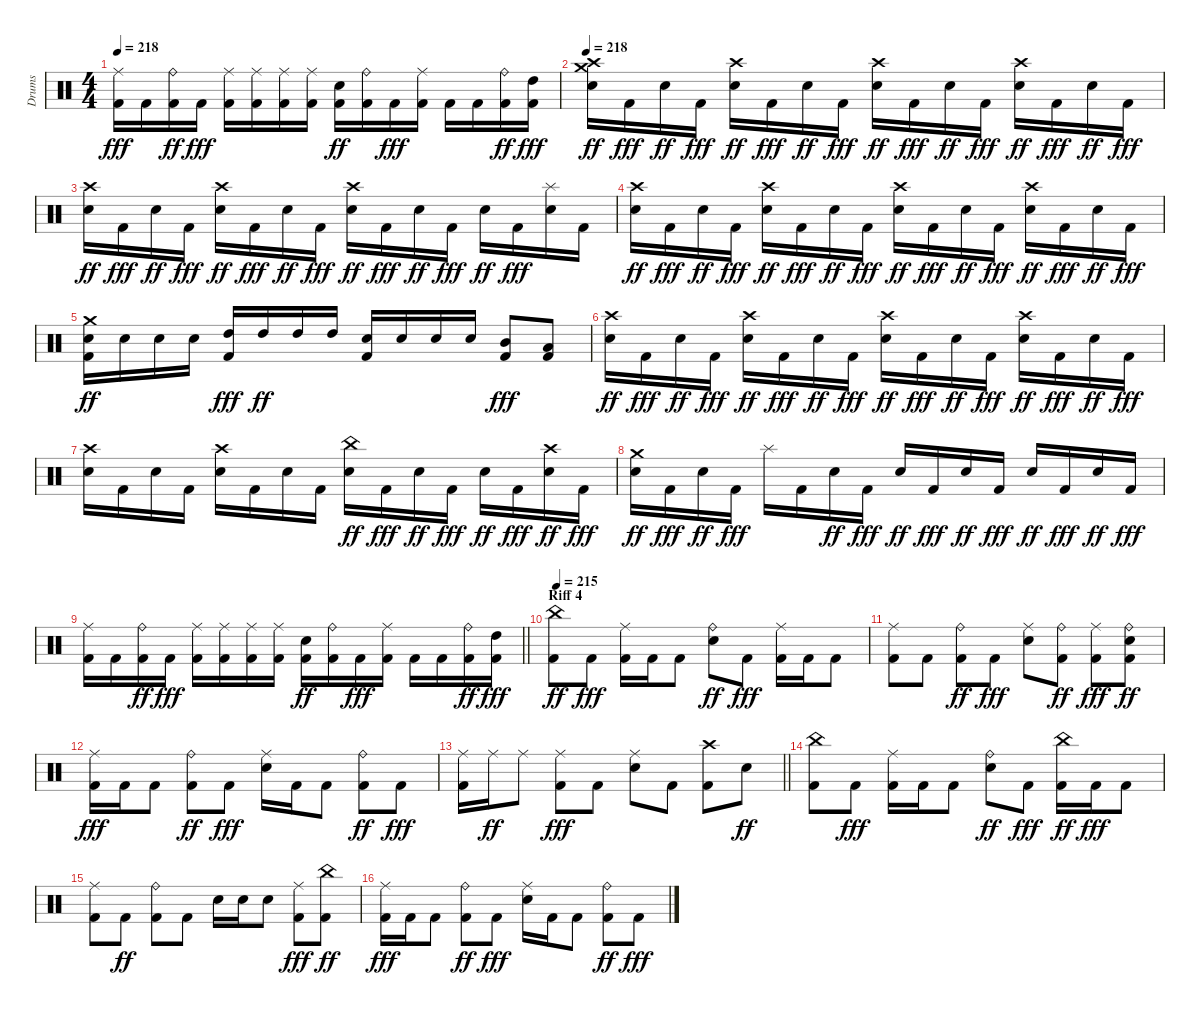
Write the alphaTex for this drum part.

\track ("Drums" "Drums") {instrument percussion}
\staff {score}
\articulation defaults
\ts (4 4)
\tempo 218
\clef neutral
\ks c
("Kick (hit) 2" "Ride (middle)").16{dy fff} "Kick (hit) 2".16 ("Kick (hit) 2" "Ride (bell)").16{dy ff} "Kick (hit) 2".16{dy fff} ("Kick (hit) 2" "Ride (middle)").16 ("Kick (hit) 2" "Ride (middle)").16 ("Kick (hit) 2" "Ride (middle)").16 ("Kick (hit) 2" "Ride (middle)").16 ("Kick (hit) 2" "Snare (hit) 2").16{dy ff} ("Kick (hit) 2" "Ride (bell)").16 "Kick (hit) 2".16{dy fff} ("Kick (hit) 2" "Ride (middle)").16 "Kick (hit) 2".16 "Kick (hit) 2".16 ("Kick (hit) 2" "Ride (bell)").16{dy ff} ("Kick (hit) 2" "High Tom (hit)").16{dy fff} |
\tempo 218
("Snare (hit) 2" "Crash high (hit)" "Crash medium (hit)").16{dy ff} "Kick (hit) 2".16{dy fff} "Snare (hit) 2".16{dy ff} "Kick (hit) 2".16{dy fff} ("Snare (hit) 2" "Crash high (hit)").16{dy ff} "Kick (hit) 2".16{dy fff} "Snare (hit) 2".16{dy ff} "Kick (hit) 2".16{dy fff} ("Snare (hit) 2" "Crash high (hit)").16{dy ff} "Kick (hit) 2".16{dy fff} "Snare (hit) 2".16{dy ff} "Kick (hit) 2".16{dy fff} ("Snare (hit) 2" "Crash high (hit)").16{dy ff} "Kick (hit) 2".16{dy fff} "Snare (hit) 2".16{dy ff} "Kick (hit) 2".16{dy fff} |
("Snare (hit) 2" "Crash high (hit)").16{dy ff} "Kick (hit) 2".16{dy fff} "Snare (hit) 2".16{dy ff} "Kick (hit) 2".16{dy fff} ("Snare (hit) 2" "Crash high (hit)").16{dy ff} "Kick (hit) 2".16{dy fff} "Snare (hit) 2".16{dy ff} "Kick (hit) 2".16{dy fff} ("Snare (hit) 2" "Crash high (hit)").16{dy ff} "Kick (hit) 2".16{dy fff} "Snare (hit) 2".16{dy ff} "Kick (hit) 2".16{dy fff} "Snare (hit) 2".16{dy ff} "Kick (hit) 2".16{dy fff} ("Snare (hit) 2" "Splash (hit)").16 "Kick (hit) 2".16 |
("Snare (hit) 2" "Crash high (hit)").16{dy ff} "Kick (hit) 2".16{dy fff} "Snare (hit) 2".16{dy ff} "Kick (hit) 2".16{dy fff} ("Snare (hit) 2" "Crash high (hit)").16{dy ff} "Kick (hit) 2".16{dy fff} "Snare (hit) 2".16{dy ff} "Kick (hit) 2".16{dy fff} ("Snare (hit) 2" "Crash high (hit)").16{dy ff} "Kick (hit) 2".16{dy fff} "Snare (hit) 2".16{dy ff} "Kick (hit) 2".16{dy fff} ("Snare (hit) 2" "Crash high (hit)").16{dy ff} "Kick (hit) 2".16{dy fff} "Snare (hit) 2".16{dy ff} "Kick (hit) 2".16{dy fff} |
("Kick (hit) 2" "Snare (hit) 2" "Crash medium (hit)").16{dy ff} "Snare (hit) 2".16 "Snare (hit) 2".16 "Snare (hit) 2".16 ("Kick (hit) 2" "High Tom (hit)").16{dy fff} "High Tom (hit)".16{dy ff} "High Tom (hit)".16 "High Tom (hit)".16 ("Kick (hit) 2" "Snare (hit) 2").16 "Snare (hit) 2".16 "Snare (hit) 2".16 "Snare (hit) 2".16 ("Kick (hit) 2" "Mid Tom (hit)").8{dy fff} ("Kick (hit) 2" "Low Tom (hit)").8 |
("Snare (hit) 2" "Crash high (hit)").16{dy ff} "Kick (hit) 2".16{dy fff} "Snare (hit) 2".16{dy ff} "Kick (hit) 2".16{dy fff} ("Snare (hit) 2" "Crash high (hit)").16{dy ff} "Kick (hit) 2".16{dy fff} "Snare (hit) 2".16{dy ff} "Kick (hit) 2".16{dy fff} ("Snare (hit) 2" "Crash high (hit)").16{dy ff} "Kick (hit) 2".16{dy fff} "Snare (hit) 2".16{dy ff} "Kick (hit) 2".16{dy fff} ("Snare (hit) 2" "Crash high (hit)").16{dy ff} "Kick (hit) 2".16{dy fff} "Snare (hit) 2".16{dy ff} "Kick (hit) 2".16{dy fff} |
("Snare (hit) 2" "Crash high (hit)").16 "Kick (hit) 2".16 "Snare (hit) 2".16 "Kick (hit) 2".16 ("Snare (hit) 2" "Crash high (hit)").16 "Kick (hit) 2".16 "Snare (hit) 2".16 "Kick (hit) 2".16 ("Snare (hit) 2" "China (hit)").16{dy ff} "Kick (hit) 2".16{dy fff} "Snare (hit) 2".16{dy ff} "Kick (hit) 2".16{dy fff} "Snare (hit) 2".16{dy ff} "Kick (hit) 2".16{dy fff} ("Snare (hit) 2" "Crash high (hit)").16{dy ff} "Kick (hit) 2".16{dy fff} |
("Snare (hit) 2" "Crash medium (hit)").16{dy ff} "Kick (hit) 2".16{dy fff} "Snare (hit) 2".16{dy ff} "Kick (hit) 2".16{dy fff} "Splash (hit)".16 "Kick (hit) 2".16 "Snare (hit) 2".16{dy ff} "Kick (hit) 2".16{dy fff} "Snare (hit) 2".16{dy ff} "Kick (hit) 2".16{dy fff} "Snare (hit) 2".16{dy ff} "Kick (hit) 2".16{dy fff} "Snare (hit) 2".16{dy ff} "Kick (hit) 2".16{dy fff} "Snare (hit) 2".16{dy ff} "Kick (hit) 2".16{dy fff} |
\barLineRight lightlight
("Kick (hit) 2" "Ride (middle)").16 "Kick (hit) 2".16 ("Kick (hit) 2" "Ride (bell)").16{dy ff} "Kick (hit) 2".16{dy fff} ("Kick (hit) 2" "Ride (middle)").16 ("Kick (hit) 2" "Ride (middle)").16 ("Kick (hit) 2" "Ride (middle)").16 ("Kick (hit) 2" "Ride (middle)").16 ("Kick (hit) 2" "Snare (hit) 2").16{dy ff} ("Kick (hit) 2" "Ride (bell)").16 "Kick (hit) 2".16{dy fff} ("Kick (hit) 2" "Ride (middle)").16 "Kick (hit) 2".16 "Kick (hit) 2".16 ("Kick (hit) 2" "Ride (bell)").16{dy ff} ("Kick (hit) 2" "High Tom (hit)").16{dy fff} |
\section ("" "Riff 4")
\tempo 215
("Kick (hit) 2" "China (hit)").8{dy ff} "Kick (hit) 2".8{dy fff} ("Kick (hit) 2" "Ride (middle)").16 "Kick (hit) 2".16 "Kick (hit) 2".8 ("Snare (hit) 2" "Ride (bell)").8{dy ff} "Kick (hit) 2".8{dy fff} ("Kick (hit) 2" "Ride (middle)").16 "Kick (hit) 2".16 "Kick (hit) 2".8 |
("Kick (hit) 2" "Ride (middle)").8 "Kick (hit) 2".8 ("Kick (hit) 2" "Ride (bell)").8{dy ff} "Kick (hit) 2".8{dy fff} ("Snare (hit) 2" "Ride (middle)").8 ("Kick (hit) 2" "Ride (bell)").8{dy ff} ("Kick (hit) 2" "Ride (middle)").8{dy fff} ("Kick (hit) 2" "Snare (hit) 2" "Ride (bell)").8{dy ff} |
("Kick (hit) 2" "Ride (middle)").16{dy fff} "Kick (hit) 2".16 "Kick (hit) 2".8 ("Kick (hit) 2" "Ride (bell)").8{dy ff} "Kick (hit) 2".8{dy fff} ("Snare (hit) 2" "Ride (middle)").16 "Kick (hit) 2".16 "Kick (hit) 2".8 ("Kick (hit) 2" "Ride (bell)").8{dy ff} "Kick (hit) 2".8{dy fff} |
\barLineRight lightlight
("Kick (hit) 2" "Ride (middle)").16 "Ride (middle)".16{dy ff} "Ride (middle)".8 ("Kick (hit) 2" "Ride (middle)").8{dy fff} "Kick (hit) 2".8 ("Snare (hit) 2" "Ride (middle)").8 "Kick (hit) 2".8 ("Kick (hit) 2" "Crash high (hit)").8 "Snare (hit) 2".8{dy ff} |
("Kick (hit) 2" "China (hit)").8 "Kick (hit) 2".8{dy fff} ("Kick (hit) 2" "Ride (middle)").16 "Kick (hit) 2".16 "Kick (hit) 2".8 ("Snare (hit) 2" "Ride (bell)").8{dy ff} "Kick (hit) 2".8{dy fff} ("Kick (hit) 2" "China (hit)").16{dy ff} "Kick (hit) 2".16{dy fff} "Kick (hit) 2".8 |
("Kick (hit) 2" "Ride (middle)").8 "Kick (hit) 2".8{dy ff} ("Kick (hit) 2" "Ride (bell)").8 "Kick (hit) 2".8 "Snare (hit) 2".16 "Snare (hit) 2".16 "Snare (hit) 2".8 ("Kick (hit) 2" "Ride (middle)").8{dy fff} ("Kick (hit) 2" "China (hit)").8{dy ff} |
("Kick (hit) 2" "Ride (middle)").16{dy fff} "Kick (hit) 2".16 "Kick (hit) 2".8 ("Kick (hit) 2" "Ride (bell)").8{dy ff} "Kick (hit) 2".8{dy fff} ("Snare (hit) 2" "Ride (middle)").16 "Kick (hit) 2".16 "Kick (hit) 2".8 ("Kick (hit) 2" "Ride (bell)").8{dy ff} "Kick (hit) 2".8{dy fff}
